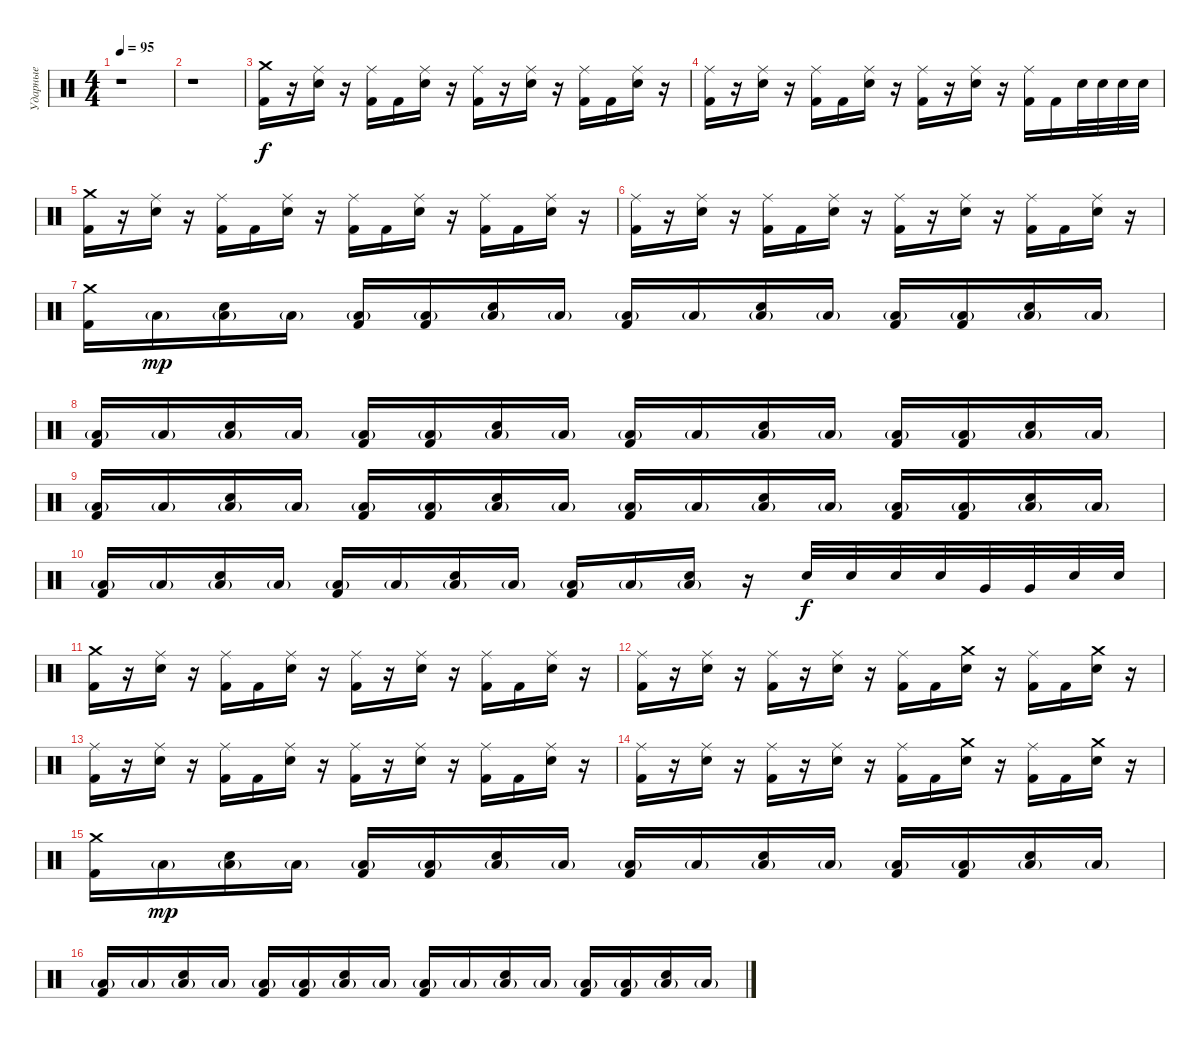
\track ("Ударные" "Ударные") {instrument percussion}
\staff {score}
\articulation defaults
\ts (4 4)
\tempo 95
\clef neutral
\ks c
r.1{dy f} |
r.1 |
("Crash medium (hit)" "Kick (hit) 2").16 r.16 ("Ride (middle)" "Electric Snare (hit)").16 r.16 ("Ride (middle)" "Kick (hit) 2").16 "Kick (hit) 2".16 ("Ride (middle)" "Electric Snare (hit)").16 r.16 ("Ride (middle)" "Kick (hit) 2").16 r.16 ("Ride (middle)" "Electric Snare (hit)").16 r.16 ("Ride (middle)" "Kick (hit) 2").16 "Kick (hit) 2".16 ("Ride (middle)" "Electric Snare (hit)").16 r.16 |
("Ride (middle)" "Kick (hit) 2").16 r.16 ("Ride (middle)" "Electric Snare (hit)").16 r.16 ("Ride (middle)" "Kick (hit) 2").16 "Kick (hit) 2".16 ("Ride (middle)" "Electric Snare (hit)").16 r.16 ("Ride (middle)" "Kick (hit) 2").16 r.16 ("Ride (middle)" "Electric Snare (hit)").16 r.16 ("Ride (middle)" "Kick (hit) 2").16 "Kick (hit) 2".16 "Electric Snare (hit)".32 "Electric Snare (hit)".32 "Electric Snare (hit)".32 "Electric Snare (hit)".32 |
("Crash medium (hit)" "Kick (hit) 2").16 r.16 ("Ride (middle)" "Electric Snare (hit)").16 r.16 ("Ride (middle)" "Kick (hit) 2").16 "Kick (hit) 2".16 ("Ride (middle)" "Electric Snare (hit)").16 r.16 ("Ride (middle)" "Kick (hit) 2").16 "Kick (hit) 2".16 ("Ride (middle)" "Electric Snare (hit)").16 r.16 ("Ride (middle)" "Kick (hit) 2").16 "Kick (hit) 2".16 ("Ride (middle)" "Electric Snare (hit)").16 r.16 |
("Ride (middle)" "Kick (hit) 2").16 r.16 ("Ride (middle)" "Electric Snare (hit)").16 r.16 ("Ride (middle)" "Kick (hit) 2").16 "Kick (hit) 2".16 ("Ride (middle)" "Electric Snare (hit)").16 r.16 ("Ride (middle)" "Kick (hit) 2").16 r.16 ("Ride (middle)" "Electric Snare (hit)").16 r.16 ("Ride (middle)" "Kick (hit) 2").16 "Kick (hit) 2".16 ("Ride (middle)" "Electric Snare (hit)").16 r.16 |
("Crash medium (hit)" "Kick (hit) 2").16 "Low Floor Tom (hit)"{g}.16{dy mp} ("Low Floor Tom (hit)"{g} "Electric Snare (hit)").16 "Low Floor Tom (hit)"{g}.16 ("Low Floor Tom (hit)"{g} "Kick (hit) 2").16 ("Low Floor Tom (hit)"{g} "Kick (hit) 2").16 ("Low Floor Tom (hit)"{g} "Electric Snare (hit)").16 "Low Floor Tom (hit)"{g}.16 ("Low Floor Tom (hit)"{g} "Kick (hit) 2").16 "Low Floor Tom (hit)"{g}.16 ("Low Floor Tom (hit)"{g} "Electric Snare (hit)").16 "Low Floor Tom (hit)"{g}.16 ("Low Floor Tom (hit)"{g} "Kick (hit) 2").16 ("Low Floor Tom (hit)"{g} "Kick (hit) 2").16 ("Low Floor Tom (hit)"{g} "Electric Snare (hit)").16 "Low Floor Tom (hit)"{g}.16 |
("Low Floor Tom (hit)"{g} "Kick (hit) 2").16 "Low Floor Tom (hit)"{g}.16 ("Low Floor Tom (hit)"{g} "Electric Snare (hit)").16 "Low Floor Tom (hit)"{g}.16 ("Low Floor Tom (hit)"{g} "Kick (hit) 2").16 ("Low Floor Tom (hit)"{g} "Kick (hit) 2").16 ("Low Floor Tom (hit)"{g} "Electric Snare (hit)").16 "Low Floor Tom (hit)"{g}.16 ("Low Floor Tom (hit)"{g} "Kick (hit) 2").16 "Low Floor Tom (hit)"{g}.16 ("Low Floor Tom (hit)"{g} "Electric Snare (hit)").16 "Low Floor Tom (hit)"{g}.16 ("Low Floor Tom (hit)"{g} "Kick (hit) 2").16 ("Low Floor Tom (hit)"{g} "Kick (hit) 2").16 ("Low Floor Tom (hit)"{g} "Electric Snare (hit)").16 "Low Floor Tom (hit)"{g}.16 |
("Low Floor Tom (hit)"{g} "Kick (hit) 2").16 "Low Floor Tom (hit)"{g}.16 ("Low Floor Tom (hit)"{g} "Electric Snare (hit)").16 "Low Floor Tom (hit)"{g}.16 ("Low Floor Tom (hit)"{g} "Kick (hit) 2").16 ("Low Floor Tom (hit)"{g} "Kick (hit) 2").16 ("Low Floor Tom (hit)"{g} "Electric Snare (hit)").16 "Low Floor Tom (hit)"{g}.16 ("Low Floor Tom (hit)"{g} "Kick (hit) 2").16 "Low Floor Tom (hit)"{g}.16 ("Low Floor Tom (hit)"{g} "Electric Snare (hit)").16 "Low Floor Tom (hit)"{g}.16 ("Low Floor Tom (hit)"{g} "Kick (hit) 2").16 ("Low Floor Tom (hit)"{g} "Kick (hit) 2").16 ("Low Floor Tom (hit)"{g} "Electric Snare (hit)").16 "Low Floor Tom (hit)"{g}.16 |
("Low Floor Tom (hit)"{g} "Kick (hit) 2").16 "Low Floor Tom (hit)"{g}.16 ("Low Floor Tom (hit)"{g} "Electric Snare (hit)").16 "Low Floor Tom (hit)"{g}.16 ("Low Floor Tom (hit)"{g} "Kick (hit) 2").16 "Low Floor Tom (hit)"{g}.16 ("Low Floor Tom (hit)"{g} "Electric Snare (hit)").16 "Low Floor Tom (hit)"{g}.16 ("Low Floor Tom (hit)"{g} "Kick (hit) 2").16 "Low Floor Tom (hit)"{g}.16 ("Low Floor Tom (hit)"{g} "Electric Snare (hit)").16 r.16 "Electric Snare (hit)".32{dy f} "Electric Snare (hit)".32 "Electric Snare (hit)".32 "Electric Snare (hit)".32 "Very Low Tom (hit)".32 "Very Low Tom (hit)".32 "Electric Snare (hit)".32 "Electric Snare (hit)".32 |
("Crash medium (hit)" "Kick (hit) 2").16 r.16 ("Ride (middle)" "Electric Snare (hit)").16 r.16 ("Ride (middle)" "Kick (hit) 2").16 "Kick (hit) 2".16 ("Ride (middle)" "Electric Snare (hit)").16 r.16 ("Ride (middle)" "Kick (hit) 2").16 r.16 ("Ride (middle)" "Electric Snare (hit)").16 r.16 ("Ride (middle)" "Kick (hit) 2").16 "Kick (hit) 2".16 ("Ride (middle)" "Electric Snare (hit)").16 r.16 |
("Ride (middle)" "Kick (hit) 2").16 r.16 ("Ride (middle)" "Electric Snare (hit)").16 r.16 ("Ride (middle)" "Kick (hit) 2").16 r.16 ("Ride (middle)" "Electric Snare (hit)").16 r.16 ("Ride (middle)" "Kick (hit) 2").16 "Kick (hit) 2".16 ("Crash medium (hit)" "Electric Snare (hit)").16 r.16 ("Ride (middle)" "Kick (hit) 2").16 "Kick (hit) 2".16 ("Crash medium (hit)" "Electric Snare (hit)").16 r.16 |
("Ride (middle)" "Kick (hit) 2").16 r.16 ("Ride (middle)" "Electric Snare (hit)").16 r.16 ("Ride (middle)" "Kick (hit) 2").16 "Kick (hit) 2".16 ("Ride (middle)" "Electric Snare (hit)").16 r.16 ("Ride (middle)" "Kick (hit) 2").16 r.16 ("Ride (middle)" "Electric Snare (hit)").16 r.16 ("Ride (middle)" "Kick (hit) 2").16 "Kick (hit) 2".16 ("Ride (middle)" "Electric Snare (hit)").16 r.16 |
("Ride (middle)" "Kick (hit) 2").16 r.16 ("Ride (middle)" "Electric Snare (hit)").16 r.16 ("Ride (middle)" "Kick (hit) 2").16 r.16 ("Ride (middle)" "Electric Snare (hit)").16 r.16 ("Ride (middle)" "Kick (hit) 2").16 "Kick (hit) 2".16 ("Crash medium (hit)" "Electric Snare (hit)").16 r.16 ("Ride (middle)" "Kick (hit) 2").16 "Kick (hit) 2".16 ("Crash medium (hit)" "Electric Snare (hit)").16 r.16 |
("Crash medium (hit)" "Kick (hit) 2").16 "Low Floor Tom (hit)"{g}.16{dy mp} ("Low Floor Tom (hit)"{g} "Electric Snare (hit)").16 "Low Floor Tom (hit)"{g}.16 ("Low Floor Tom (hit)"{g} "Kick (hit) 2").16 ("Low Floor Tom (hit)"{g} "Kick (hit) 2").16 ("Low Floor Tom (hit)"{g} "Electric Snare (hit)").16 "Low Floor Tom (hit)"{g}.16 ("Low Floor Tom (hit)"{g} "Kick (hit) 2").16 "Low Floor Tom (hit)"{g}.16 ("Low Floor Tom (hit)"{g} "Electric Snare (hit)").16 "Low Floor Tom (hit)"{g}.16 ("Low Floor Tom (hit)"{g} "Kick (hit) 2").16 ("Low Floor Tom (hit)"{g} "Kick (hit) 2").16 ("Low Floor Tom (hit)"{g} "Electric Snare (hit)").16 "Low Floor Tom (hit)"{g}.16 |
("Low Floor Tom (hit)"{g} "Kick (hit) 2").16 "Low Floor Tom (hit)"{g}.16 ("Low Floor Tom (hit)"{g} "Electric Snare (hit)").16 "Low Floor Tom (hit)"{g}.16 ("Low Floor Tom (hit)"{g} "Kick (hit) 2").16 ("Low Floor Tom (hit)"{g} "Kick (hit) 2").16 ("Low Floor Tom (hit)"{g} "Electric Snare (hit)").16 "Low Floor Tom (hit)"{g}.16 ("Low Floor Tom (hit)"{g} "Kick (hit) 2").16 "Low Floor Tom (hit)"{g}.16 ("Low Floor Tom (hit)"{g} "Electric Snare (hit)").16 "Low Floor Tom (hit)"{g}.16 ("Low Floor Tom (hit)"{g} "Kick (hit) 2").16 ("Low Floor Tom (hit)"{g} "Kick (hit) 2").16 ("Low Floor Tom (hit)"{g} "Electric Snare (hit)").16 "Low Floor Tom (hit)"{g}.16
